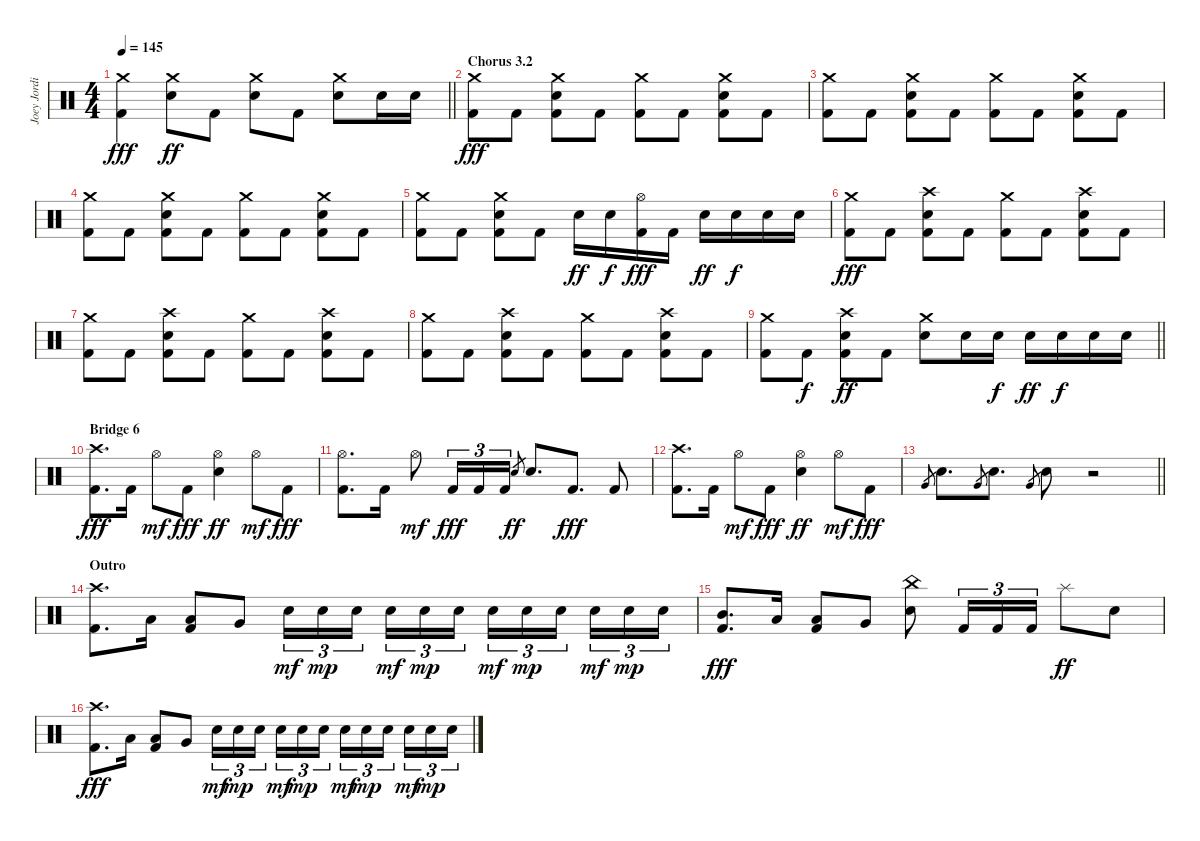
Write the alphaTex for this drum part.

\track ("Joey Jordison" "Joey Jordi") {instrument percussion}
\staff {score}
\articulation defaults
\ts (4 4)
\tempo 145
\clef neutral
\barLineRight lightlight
\ks c
("Crash medium (hit)" "Kick (hit) 2").4{dy fff} ("Crash medium (hit)" "Electric Snare (hit)").8{dy ff} "Kick (hit) 2".8 ("Crash medium (hit)" "Electric Snare (hit)").8 "Kick (hit) 2".8 ("Crash medium (hit)" "Electric Snare (hit)").8 "Electric Snare (hit)".16 "Electric Snare (hit)".16 |
\section ("" "Chorus 3.2")
("Crash medium (hit)" "Kick (hit) 2").8{dy fff} "Kick (hit) 2".8 ("Crash medium (hit)" "Electric Snare (hit)" "Kick (hit) 2").8 "Kick (hit) 2".8 ("Crash medium (hit)" "Kick (hit) 2").8 "Kick (hit) 2".8 ("Crash medium (hit)" "Electric Snare (hit)" "Kick (hit) 2").8 "Kick (hit) 2".8 |
("Crash medium (hit)" "Kick (hit) 2").8 "Kick (hit) 2".8 ("Crash medium (hit)" "Electric Snare (hit)" "Kick (hit) 2").8 "Kick (hit) 2".8 ("Crash medium (hit)" "Kick (hit) 2").8 "Kick (hit) 2".8 ("Crash medium (hit)" "Electric Snare (hit)" "Kick (hit) 2").8 "Kick (hit) 2".8 |
("Crash medium (hit)" "Kick (hit) 2").8 "Kick (hit) 2".8 ("Crash medium (hit)" "Electric Snare (hit)" "Kick (hit) 2").8 "Kick (hit) 2".8 ("Crash medium (hit)" "Kick (hit) 2").8 "Kick (hit) 2".8 ("Crash medium (hit)" "Electric Snare (hit)" "Kick (hit) 2").8 "Kick (hit) 2".8 |
("Crash medium (hit)" "Kick (hit) 2").8 "Kick (hit) 2".8 ("Crash medium (hit)" "Electric Snare (hit)" "Kick (hit) 2").8 "Kick (hit) 2".8 "Electric Snare (hit)".16{dy ff} "Electric Snare (hit)".16{dy f} ("Hi-Hat (open)" "Kick (hit) 2").16{dy fff} "Kick (hit) 2".16 "Electric Snare (hit)".16{dy ff} "Electric Snare (hit)".16{dy f} "Electric Snare (hit)".16 "Electric Snare (hit)".16 |
("Crash medium (hit)" "Kick (hit) 2").8{dy fff} "Kick (hit) 2".8 ("Crash high (hit)" "Electric Snare (hit)" "Kick (hit) 2").8 "Kick (hit) 2".8 ("Crash medium (hit)" "Kick (hit) 2").8 "Kick (hit) 2".8 ("Crash high (hit)" "Electric Snare (hit)" "Kick (hit) 2").8 "Kick (hit) 2".8 |
("Crash medium (hit)" "Kick (hit) 2").8 "Kick (hit) 2".8 ("Crash high (hit)" "Electric Snare (hit)" "Kick (hit) 2").8 "Kick (hit) 2".8 ("Crash medium (hit)" "Kick (hit) 2").8 "Kick (hit) 2".8 ("Crash high (hit)" "Electric Snare (hit)" "Kick (hit) 2").8 "Kick (hit) 2".8 |
("Crash medium (hit)" "Kick (hit) 2").8 "Kick (hit) 2".8 ("Crash high (hit)" "Electric Snare (hit)" "Kick (hit) 2").8 "Kick (hit) 2".8 ("Crash medium (hit)" "Kick (hit) 2").8 "Kick (hit) 2".8 ("Crash high (hit)" "Electric Snare (hit)" "Kick (hit) 2").8 "Kick (hit) 2".8 |
\barLineRight lightlight
("Crash medium (hit)" "Kick (hit) 2").8 "Kick (hit) 2".8{dy f} ("Crash high (hit)" "Electric Snare (hit)" "Kick (hit) 2").8{dy ff} "Kick (hit) 2".8 ("Crash medium (hit)" "Electric Snare (hit)").8 "Electric Snare (hit)".16 "Electric Snare (hit)".16{dy f} "Electric Snare (hit)".16{dy ff} "Electric Snare (hit)".16{dy f} "Electric Snare (hit)".16 "Electric Snare (hit)".16 |
\section ("" "Bridge 6")
("Crash high (hit)" "Kick (hit) 2").8{d dy fff} "Kick (hit) 2".16 "Hi-Hat (open)".8{dy mf} "Kick (hit) 2".8{dy fff} ("Hi-Hat (open)" "Electric Snare (hit)").4{dy ff} "Hi-Hat (open)".8{dy mf} "Kick (hit) 2".8{dy fff} |
("Hi-Hat (open)" "Kick (hit) 2").8{d} "Kick (hit) 2".16 "Hi-Hat (open)".8{dy mf} "Kick (hit) 2".16{tu (3 2) dy fff} "Kick (hit) 2".16{tu (3 2)} "Kick (hit) 2".16{tu (3 2)} "Electric Snare (hit)".8{gr dy ff} "Electric Snare (hit)".8{d} "Kick (hit) 2".8{d dy fff} "Kick (hit) 2".8 |
("Crash high (hit)" "Kick (hit) 2").8{d} "Kick (hit) 2".16 "Hi-Hat (open)".8{dy mf} "Kick (hit) 2".8{dy fff} ("Hi-Hat (open)" "Electric Snare (hit)").4{dy ff} "Hi-Hat (open)".8{dy mf} "Kick (hit) 2".8{dy fff} |
\barLineRight lightlight "Very Low Tom (hit)".8{gr} "Electric Snare (hit)".8{d} "Very Low Tom (hit)".8{gr} "Electric Snare (hit)".8{d} "Very Low Tom (hit)".8{gr} "Electric Snare (hit)".8
r.2 |
\section ("" "Outro")
("Crash high (hit)" "Kick (hit) 2").8{d} "Low Tom (hit)".16 ("Low Floor Tom (hit)" "Kick (hit) 2").8 "Very Low Tom (hit)".8 "Electric Snare (hit)".16{tu (3 2) dy mf} "Electric Snare (hit)".16{tu (3 2) dy mp} "Electric Snare (hit)".16{tu (3 2) beam splitsecondary} "Electric Snare (hit)".16{tu (3 2) dy mf} "Electric Snare (hit)".16{tu (3 2) dy mp} "Electric Snare (hit)".16{tu (3 2)} "Electric Snare (hit)".16{tu (3 2) dy mf} "Electric Snare (hit)".16{tu (3 2) dy mp} "Electric Snare (hit)".16{tu (3 2) beam splitsecondary} "Electric Snare (hit)".16{tu (3 2) dy mf} "Electric Snare (hit)".16{tu (3 2) dy mp} "Electric Snare (hit)".16{tu (3 2)} |
("Mid Tom (hit)" "Kick (hit) 2").8{d dy fff} "Low Tom (hit)".16 ("Low Floor Tom (hit)" "Kick (hit) 2").8 "Very Low Tom (hit)".8 ("China (hit)" "Electric Snare (hit)").8 "Kick (hit) 2".16{tu (3 2)} "Kick (hit) 2".16{tu (3 2)} "Kick (hit) 2".16{tu (3 2)} "Splash (hit)".8{dy ff} "Electric Snare (hit)".8 |
("Crash high (hit)" "Kick (hit) 2").8{d dy fff} "Low Tom (hit)".16 ("Low Floor Tom (hit)" "Kick (hit) 2").8 "Very Low Tom (hit)".8 "Electric Snare (hit)".16{tu (3 2) dy mf} "Electric Snare (hit)".16{tu (3 2) dy mp} "Electric Snare (hit)".16{tu (3 2) beam splitsecondary} "Electric Snare (hit)".16{tu (3 2) dy mf} "Electric Snare (hit)".16{tu (3 2) dy mp} "Electric Snare (hit)".16{tu (3 2)} "Electric Snare (hit)".16{tu (3 2) dy mf} "Electric Snare (hit)".16{tu (3 2) dy mp} "Electric Snare (hit)".16{tu (3 2) beam splitsecondary} "Electric Snare (hit)".16{tu (3 2) dy mf} "Electric Snare (hit)".16{tu (3 2) dy mp} "Electric Snare (hit)".16{tu (3 2)}
